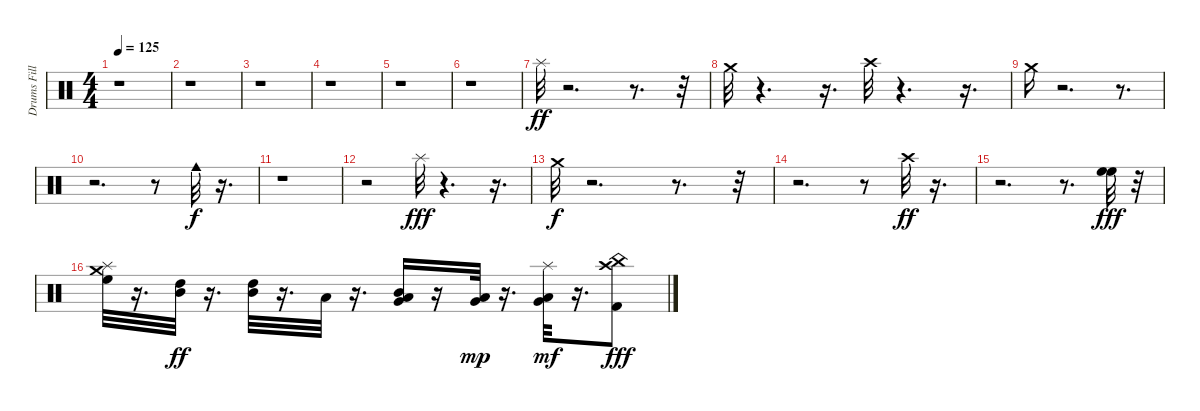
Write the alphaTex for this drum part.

\track ("Drums Fill" "Drums Fill") {instrument percussion}
\staff {score}
\articulation defaults
\ts (4 4)
\tempo 125
\clef neutral
\ks c
r.1{dy f} |
r.1 |
r.1 |
r.1 |
r.1 |
r.1 |
"Splash (hit)".32{dy ff} r.2{d} r.8{d} r.32 |
"Crash medium (hit)".32 r.4{d} r.16{d} "Crash high (hit)".32 r.4{d} r.16{d} |
"Crash medium (hit)".16 r.2{d} r.8{d} |
r.2{d} r.8 "Cowbell medium (hit)".32{dy f} r.16{d} |
r.1 |
r.2 "Splash (hit)".32{dy fff} r.4{d} r.16{d} |
"Crash medium (hit)".32{dy f} r.2{d} r.8{d} r.32 |
r.2{d} r.8 "Crash high (hit)".32{dy ff} r.16{d} |
r.2{d} r.8{d} ("High Floor Tom (hit)" "High Floor Tom (hit)").32{dy fff} r.32 |
("High Floor Tom (hit)" "Crash medium (hit)" "Splash (hit)").32 r.16{d} ("High Tom (hit)" "Mid Tom (hit)").32{dy ff} r.16{d} ("Mid Tom (hit)" "High Tom (hit)").32 r.16{d} "Low Tom (hit)".32 r.16{d} ("Very Low Tom (hit)" "Mid Tom (hit)" "Low Tom (hit)").16 r.16 ("Very Low Tom (hit)" "Low Tom (hit)").32{dy mp} r.16{d} ("Low Floor Tom (hit)" "Very Low Tom (hit)" "Splash (hit)").32{dy mf} r.16{d} ("Kick (hit) 2" "China (hit)" "Crash high (hit)").8{dy fff}
